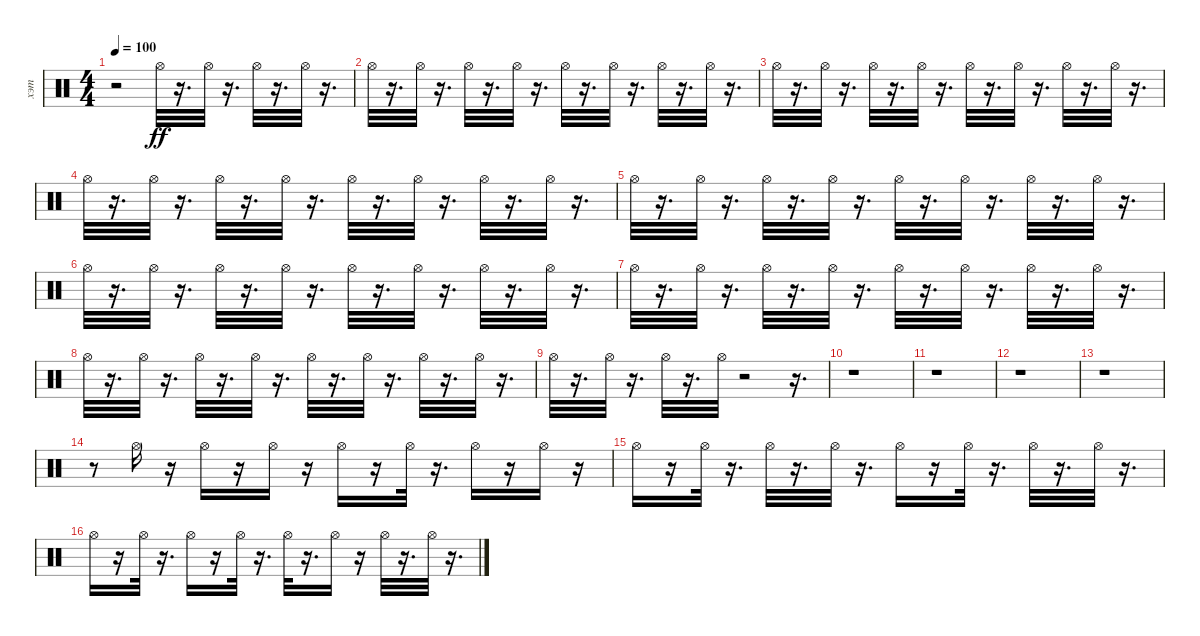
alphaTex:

\track ("хэт" "хэт") {instrument percussion}
\staff {score}
\articulation defaults
\ts (4 4)
\tempo 100
\clef neutral
\ks c
r.2{dy ff} "Hi-Hat (open)".32 r.16{d} "Hi-Hat (open)".32 r.16{d} "Hi-Hat (open)".32 r.16{d} "Hi-Hat (open)".32 r.16{d} |
"Hi-Hat (open)".32 r.16{d} "Hi-Hat (open)".32 r.16{d} "Hi-Hat (open)".32 r.16{d} "Hi-Hat (open)".32 r.16{d} "Hi-Hat (open)".32 r.16{d} "Hi-Hat (open)".32 r.16{d} "Hi-Hat (open)".32 r.16{d} "Hi-Hat (open)".32 r.16{d} |
"Hi-Hat (open)".32 r.16{d} "Hi-Hat (open)".32 r.16{d} "Hi-Hat (open)".32 r.16{d} "Hi-Hat (open)".32 r.16{d} "Hi-Hat (open)".32 r.16{d} "Hi-Hat (open)".32 r.16{d} "Hi-Hat (open)".32 r.16{d} "Hi-Hat (open)".32 r.16{d} |
"Hi-Hat (open)".32 r.16{d} "Hi-Hat (open)".32 r.16{d} "Hi-Hat (open)".32 r.16{d} "Hi-Hat (open)".32 r.16{d} "Hi-Hat (open)".32 r.16{d} "Hi-Hat (open)".32 r.16{d} "Hi-Hat (open)".32 r.16{d} "Hi-Hat (open)".32 r.16{d} |
"Hi-Hat (open)".32 r.16{d} "Hi-Hat (open)".32 r.16{d} "Hi-Hat (open)".32 r.16{d} "Hi-Hat (open)".32 r.16{d} "Hi-Hat (open)".32 r.16{d} "Hi-Hat (open)".32 r.16{d} "Hi-Hat (open)".32 r.16{d} "Hi-Hat (open)".32 r.16{d} |
"Hi-Hat (open)".32 r.16{d} "Hi-Hat (open)".32 r.16{d} "Hi-Hat (open)".32 r.16{d} "Hi-Hat (open)".32 r.16{d} "Hi-Hat (open)".32 r.16{d} "Hi-Hat (open)".32 r.16{d} "Hi-Hat (open)".32 r.16{d} "Hi-Hat (open)".32 r.16{d} |
"Hi-Hat (open)".32 r.16{d} "Hi-Hat (open)".32 r.16{d} "Hi-Hat (open)".32 r.16{d} "Hi-Hat (open)".32 r.16{d} "Hi-Hat (open)".32 r.16{d} "Hi-Hat (open)".32 r.16{d} "Hi-Hat (open)".32 r.16{d} "Hi-Hat (open)".32 r.16{d} |
"Hi-Hat (open)".32 r.16{d} "Hi-Hat (open)".32 r.16{d} "Hi-Hat (open)".32 r.16{d} "Hi-Hat (open)".32 r.16{d} "Hi-Hat (open)".32 r.16{d} "Hi-Hat (open)".32 r.16{d} "Hi-Hat (open)".32 r.16{d} "Hi-Hat (open)".32 r.16{d} |
"Hi-Hat (open)".32 r.16{d} "Hi-Hat (open)".32 r.16{d} "Hi-Hat (open)".32 r.16{d} "Hi-Hat (open)".32 r.2 r.16{d} |
r.1 |
r.1 |
r.1 |
r.1 |
r.8 "Hi-Hat (open)".16 r.16 "Hi-Hat (open)".16 r.16 "Hi-Hat (open)".16 r.16 "Hi-Hat (open)".16 r.16 "Hi-Hat (open)".32 r.16{d} "Hi-Hat (open)".16 r.16 "Hi-Hat (open)".16 r.16 |
"Hi-Hat (open)".16 r.16 "Hi-Hat (open)".32 r.16{d} "Hi-Hat (open)".32 r.16{d} "Hi-Hat (open)".32 r.16{d} "Hi-Hat (open)".16 r.16 "Hi-Hat (open)".32 r.16{d} "Hi-Hat (open)".32 r.16{d} "Hi-Hat (open)".32 r.16{d} |
"Hi-Hat (open)".16 r.16 "Hi-Hat (open)".32 r.16{d} "Hi-Hat (open)".16 r.16 "Hi-Hat (open)".32 r.16{d} "Hi-Hat (open)".32 r.16{d} "Hi-Hat (open)".16 r.16 "Hi-Hat (open)".32 r.16{d} "Hi-Hat (open)".32 r.16{d}
